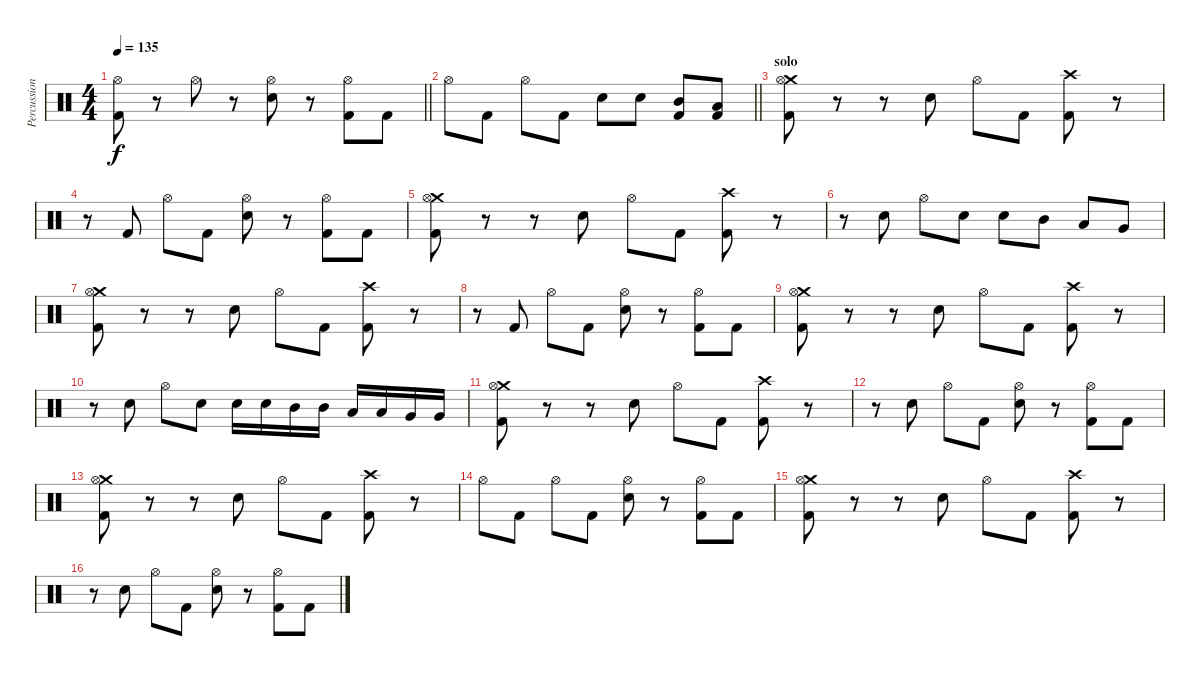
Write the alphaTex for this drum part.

\track ("Percussion" "Percussion") {instrument percussion}
\staff {score}
\articulation defaults
\ts (4 4)
\tempo 135
\clef neutral
\barLineRight lightlight
\ks c
("Hi-Hat (open)" "Kick (hit) 2").8{dy f} r.8 "Hi-Hat (open)".8 r.8 ("Hi-Hat (open)" "Electric Snare (hit)").8 r.8 ("Hi-Hat (open)" "Kick (hit) 2").8 "Kick (hit) 2".8 |
\barLineRight lightlight "Hi-Hat (open)".8 "Kick (hit) 2".8 "Hi-Hat (open)".8 "Kick (hit) 2".8 "Electric Snare (hit)".8 "Electric Snare (hit)".8
("Mid Tom (hit)" "Kick (hit) 2").8 ("Low Tom (hit)" "Kick (hit) 2").8 |
\section ("" "solo")
("Crash medium (hit)" "Hi-Hat (open)" "Kick (hit) 2").8 r.8 r.8 "Electric Snare (hit)".8 "Hi-Hat (open)".8 "Kick (hit) 2".8 ("Crash high (hit)" "Kick (hit) 2").8 r.8 |
r.8 "Kick (hit) 2".8 "Hi-Hat (open)".8 "Kick (hit) 2".8 ("Hi-Hat (open)" "Electric Snare (hit)").8 r.8 ("Hi-Hat (open)" "Kick (hit) 2").8 "Kick (hit) 2".8 |
("Crash medium (hit)" "Hi-Hat (open)" "Kick (hit) 2").8 r.8 r.8 "Electric Snare (hit)".8 "Hi-Hat (open)".8 "Kick (hit) 2".8 ("Crash high (hit)" "Kick (hit) 2").8 r.8 |
r.8 "Electric Snare (hit)".8 "Hi-Hat (open)".8 "Electric Snare (hit)".8 "Electric Snare (hit)".8 "Mid Tom (hit)".8 "Low Tom (hit)".8 "Very Low Tom (hit)".8 |
("Crash medium (hit)" "Hi-Hat (open)" "Kick (hit) 2").8 r.8 r.8 "Electric Snare (hit)".8 "Hi-Hat (open)".8 "Kick (hit) 2".8 ("Crash high (hit)" "Kick (hit) 2").8 r.8 |
r.8 "Kick (hit) 2".8 "Hi-Hat (open)".8 "Kick (hit) 2".8 ("Hi-Hat (open)" "Electric Snare (hit)").8 r.8 ("Hi-Hat (open)" "Kick (hit) 2").8 "Kick (hit) 2".8 |
("Crash medium (hit)" "Hi-Hat (open)" "Kick (hit) 2").8 r.8 r.8 "Electric Snare (hit)".8 "Hi-Hat (open)".8 "Kick (hit) 2".8 ("Crash high (hit)" "Kick (hit) 2").8 r.8 |
r.8 "Electric Snare (hit)".8 "Hi-Hat (open)".8 "Electric Snare (hit)".8 "Electric Snare (hit)".16 "Electric Snare (hit)".16 "Mid Tom (hit)".16 "Mid Tom (hit)".16 "Low Tom (hit)".16 "Low Tom (hit)".16 "Very Low Tom (hit)".16 "Very Low Tom (hit)".16 |
("Crash medium (hit)" "Hi-Hat (open)" "Kick (hit) 2").8 r.8 r.8 "Electric Snare (hit)".8 "Hi-Hat (open)".8 "Kick (hit) 2".8 ("Crash high (hit)" "Kick (hit) 2").8 r.8 |
r.8 "Electric Snare (hit)".8 "Hi-Hat (open)".8 "Kick (hit) 2".8 ("Hi-Hat (open)" "Electric Snare (hit)").8 r.8 ("Hi-Hat (open)" "Kick (hit) 2").8 "Kick (hit) 2".8 |
("Crash medium (hit)" "Hi-Hat (open)" "Kick (hit) 2").8 r.8 r.8 "Electric Snare (hit)".8 "Hi-Hat (open)".8 "Kick (hit) 2".8 ("Crash high (hit)" "Kick (hit) 2").8 r.8 |
"Hi-Hat (open)".8 "Kick (hit) 2".8 "Hi-Hat (open)".8 "Kick (hit) 2".8 ("Hi-Hat (open)" "Electric Snare (hit)").8 r.8 ("Hi-Hat (open)" "Kick (hit) 2").8 "Kick (hit) 2".8 |
("Crash medium (hit)" "Hi-Hat (open)" "Kick (hit) 2").8 r.8 r.8 "Electric Snare (hit)".8 "Hi-Hat (open)".8 "Kick (hit) 2".8 ("Crash high (hit)" "Kick (hit) 2").8 r.8 |
r.8 "Electric Snare (hit)".8 "Hi-Hat (open)".8 "Kick (hit) 2".8 ("Hi-Hat (open)" "Electric Snare (hit)").8 r.8 ("Hi-Hat (open)" "Kick (hit) 2").8 "Kick (hit) 2".8
